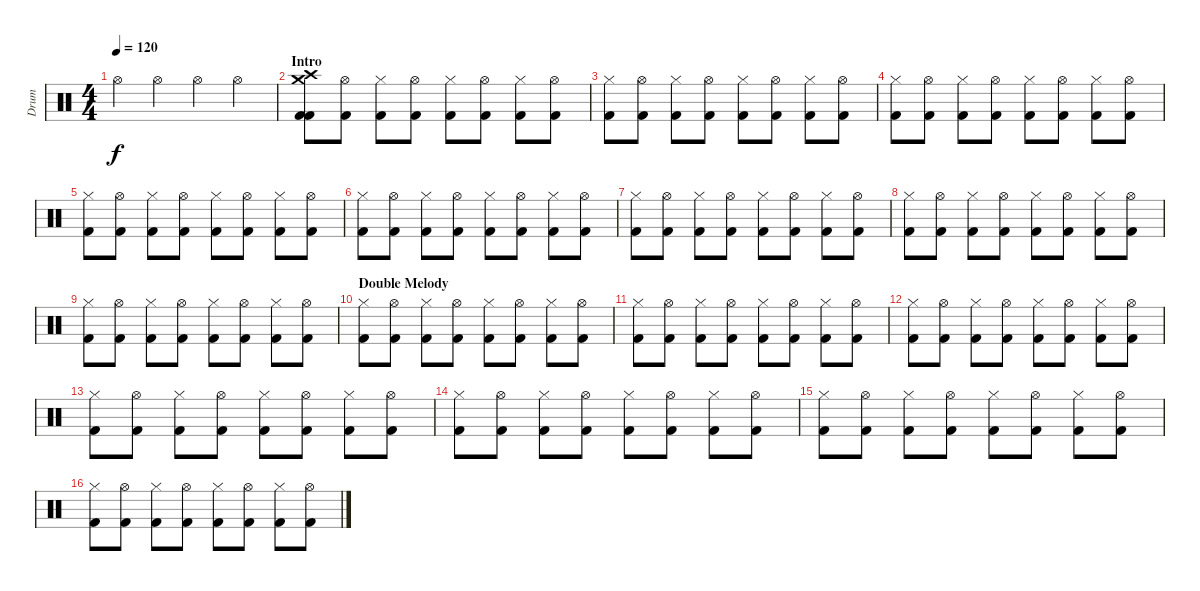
\track ("Drum" "Drum") {instrument percussion}
\staff {score}
\articulation defaults
\ts (4 4)
\tempo 120
\tempo 100
\tempo 120
\clef neutral
\ks c "Hi-Hat (open)".4{dy f} "Hi-Hat (open)".4 "Hi-Hat (open)".4 "Hi-Hat (open)".4
|
\section ("" "Intro")
("Kick (hit) 2" "Kick (hit) 2" "Crash medium (hit)" "Crash high (hit)").8 ("Kick (hit) 2" "Hi-Hat (open)").8 ("Kick (hit) 2" "Hi-Hat (closed)").8 ("Kick (hit) 2" "Hi-Hat (open)").8 ("Kick (hit) 2" "Hi-Hat (closed)").8 ("Kick (hit) 2" "Hi-Hat (open)").8 ("Kick (hit) 2" "Hi-Hat (closed)").8 ("Kick (hit) 2" "Hi-Hat (open)").8 |
("Kick (hit) 2" "Hi-Hat (closed)").8 ("Kick (hit) 2" "Hi-Hat (open)").8 ("Kick (hit) 2" "Hi-Hat (closed)").8 ("Kick (hit) 2" "Hi-Hat (open)").8 ("Kick (hit) 2" "Hi-Hat (closed)").8 ("Kick (hit) 2" "Hi-Hat (open)").8 ("Kick (hit) 2" "Hi-Hat (closed)").8 ("Kick (hit) 2" "Hi-Hat (open)").8 |
("Kick (hit) 2" "Hi-Hat (closed)").8 ("Kick (hit) 2" "Hi-Hat (open)").8 ("Kick (hit) 2" "Hi-Hat (closed)").8 ("Kick (hit) 2" "Hi-Hat (open)").8 ("Kick (hit) 2" "Hi-Hat (closed)").8 ("Kick (hit) 2" "Hi-Hat (open)").8 ("Kick (hit) 2" "Hi-Hat (closed)").8 ("Kick (hit) 2" "Hi-Hat (open)").8 |
("Kick (hit) 2" "Hi-Hat (closed)").8 ("Kick (hit) 2" "Hi-Hat (open)").8 ("Kick (hit) 2" "Hi-Hat (closed)").8 ("Kick (hit) 2" "Hi-Hat (open)").8 ("Kick (hit) 2" "Hi-Hat (closed)").8 ("Kick (hit) 2" "Hi-Hat (open)").8 ("Kick (hit) 2" "Hi-Hat (closed)").8 ("Kick (hit) 2" "Hi-Hat (open)").8 |
("Kick (hit) 2" "Hi-Hat (closed)").8 ("Kick (hit) 2" "Hi-Hat (open)").8 ("Kick (hit) 2" "Hi-Hat (closed)").8 ("Kick (hit) 2" "Hi-Hat (open)").8 ("Kick (hit) 2" "Hi-Hat (closed)").8 ("Kick (hit) 2" "Hi-Hat (open)").8 ("Kick (hit) 2" "Hi-Hat (closed)").8 ("Kick (hit) 2" "Hi-Hat (open)").8 |
("Kick (hit) 2" "Hi-Hat (closed)").8 ("Kick (hit) 2" "Hi-Hat (open)").8 ("Kick (hit) 2" "Hi-Hat (closed)").8 ("Kick (hit) 2" "Hi-Hat (open)").8 ("Kick (hit) 2" "Hi-Hat (closed)").8 ("Kick (hit) 2" "Hi-Hat (open)").8 ("Kick (hit) 2" "Hi-Hat (closed)").8 ("Kick (hit) 2" "Hi-Hat (open)").8 |
("Kick (hit) 2" "Hi-Hat (closed)").8 ("Kick (hit) 2" "Hi-Hat (open)").8 ("Kick (hit) 2" "Hi-Hat (closed)").8 ("Kick (hit) 2" "Hi-Hat (open)").8 ("Kick (hit) 2" "Hi-Hat (closed)").8 ("Kick (hit) 2" "Hi-Hat (open)").8 ("Kick (hit) 2" "Hi-Hat (closed)").8 ("Kick (hit) 2" "Hi-Hat (open)").8 |
("Kick (hit) 2" "Hi-Hat (closed)").8 ("Kick (hit) 2" "Hi-Hat (open)").8 ("Kick (hit) 2" "Hi-Hat (closed)").8 ("Kick (hit) 2" "Hi-Hat (open)").8 ("Kick (hit) 2" "Hi-Hat (closed)").8 ("Kick (hit) 2" "Hi-Hat (open)").8 ("Kick (hit) 2" "Hi-Hat (closed)").8 ("Kick (hit) 2" "Hi-Hat (open)").8 |
\section ("" "Double Melody")
("Kick (hit) 2" "Hi-Hat (closed)").8 ("Kick (hit) 2" "Hi-Hat (open)").8 ("Kick (hit) 2" "Hi-Hat (closed)").8 ("Kick (hit) 2" "Hi-Hat (open)").8 ("Kick (hit) 2" "Hi-Hat (closed)").8 ("Kick (hit) 2" "Hi-Hat (open)").8 ("Kick (hit) 2" "Hi-Hat (closed)").8 ("Kick (hit) 2" "Hi-Hat (open)").8 |
("Kick (hit) 2" "Hi-Hat (closed)").8 ("Kick (hit) 2" "Hi-Hat (open)").8 ("Kick (hit) 2" "Hi-Hat (closed)").8 ("Kick (hit) 2" "Hi-Hat (open)").8 ("Kick (hit) 2" "Hi-Hat (closed)").8 ("Kick (hit) 2" "Hi-Hat (open)").8 ("Kick (hit) 2" "Hi-Hat (closed)").8 ("Kick (hit) 2" "Hi-Hat (open)").8 |
("Kick (hit) 2" "Hi-Hat (closed)").8 ("Kick (hit) 2" "Hi-Hat (open)").8 ("Kick (hit) 2" "Hi-Hat (closed)").8 ("Kick (hit) 2" "Hi-Hat (open)").8 ("Kick (hit) 2" "Hi-Hat (closed)").8 ("Kick (hit) 2" "Hi-Hat (open)").8 ("Kick (hit) 2" "Hi-Hat (closed)").8 ("Kick (hit) 2" "Hi-Hat (open)").8 |
("Kick (hit) 2" "Hi-Hat (closed)").8 ("Kick (hit) 2" "Hi-Hat (open)").8 ("Kick (hit) 2" "Hi-Hat (closed)").8 ("Kick (hit) 2" "Hi-Hat (open)").8 ("Kick (hit) 2" "Hi-Hat (closed)").8 ("Kick (hit) 2" "Hi-Hat (open)").8 ("Kick (hit) 2" "Hi-Hat (closed)").8 ("Kick (hit) 2" "Hi-Hat (open)").8 |
("Kick (hit) 2" "Hi-Hat (closed)").8 ("Kick (hit) 2" "Hi-Hat (open)").8 ("Kick (hit) 2" "Hi-Hat (closed)").8 ("Kick (hit) 2" "Hi-Hat (open)").8 ("Kick (hit) 2" "Hi-Hat (closed)").8 ("Kick (hit) 2" "Hi-Hat (open)").8 ("Kick (hit) 2" "Hi-Hat (closed)").8 ("Kick (hit) 2" "Hi-Hat (open)").8 |
("Kick (hit) 2" "Hi-Hat (closed)").8 ("Kick (hit) 2" "Hi-Hat (open)").8 ("Kick (hit) 2" "Hi-Hat (closed)").8 ("Kick (hit) 2" "Hi-Hat (open)").8 ("Kick (hit) 2" "Hi-Hat (closed)").8 ("Kick (hit) 2" "Hi-Hat (open)").8 ("Kick (hit) 2" "Hi-Hat (closed)").8 ("Kick (hit) 2" "Hi-Hat (open)").8 |
("Kick (hit) 2" "Hi-Hat (closed)").8 ("Kick (hit) 2" "Hi-Hat (open)").8 ("Kick (hit) 2" "Hi-Hat (closed)").8 ("Kick (hit) 2" "Hi-Hat (open)").8 ("Kick (hit) 2" "Hi-Hat (closed)").8 ("Kick (hit) 2" "Hi-Hat (open)").8 ("Kick (hit) 2" "Hi-Hat (closed)").8 ("Kick (hit) 2" "Hi-Hat (open)").8
